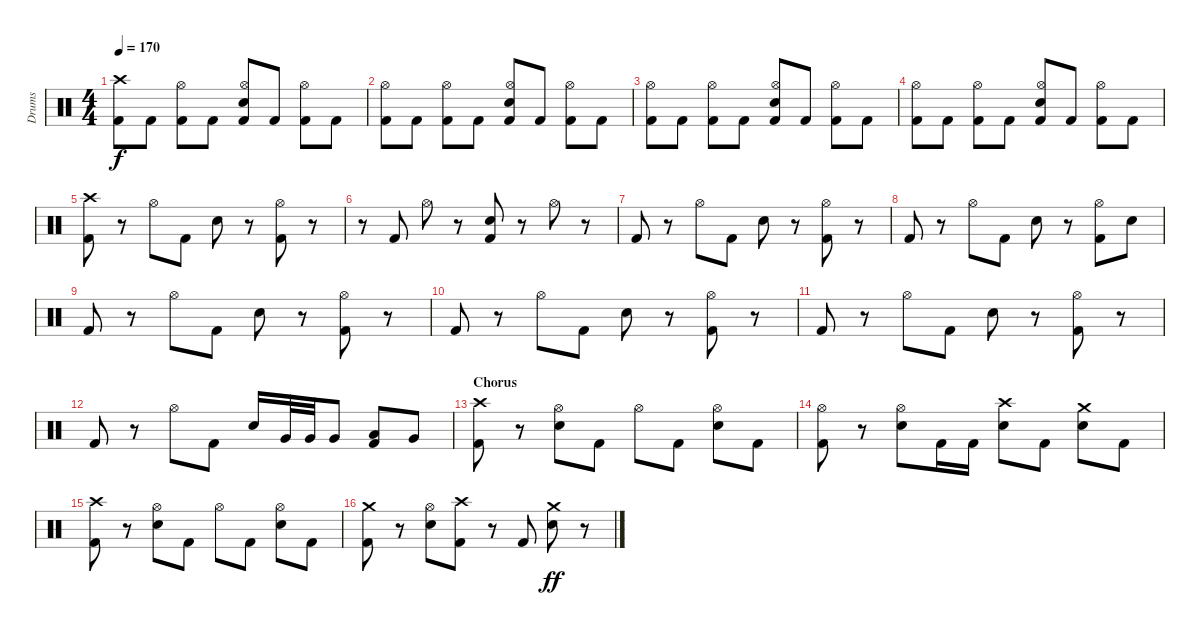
\track ("Drums" "Drums") {instrument percussion}
\staff {score}
\articulation defaults
\ts (4 4)
\tempo 170
\clef neutral
\ks c
("Kick (hit) 2" "Crash high (hit)").8{dy f} "Kick (hit) 2".8 ("Kick (hit) 2" "Hi-Hat (open)").8 "Kick (hit) 2".8 ("Kick (hit) 2" "Hi-Hat (open)" "Electric Snare (hit)").8 "Kick (hit) 2".8 ("Kick (hit) 2" "Hi-Hat (open)").8 "Kick (hit) 2".8 |
("Kick (hit) 2" "Hi-Hat (open)").8 "Kick (hit) 2".8 ("Kick (hit) 2" "Hi-Hat (open)").8 "Kick (hit) 2".8 ("Kick (hit) 2" "Hi-Hat (open)" "Electric Snare (hit)").8 "Kick (hit) 2".8 ("Kick (hit) 2" "Hi-Hat (open)").8 "Kick (hit) 2".8 |
("Kick (hit) 2" "Hi-Hat (open)").8 "Kick (hit) 2".8 ("Kick (hit) 2" "Hi-Hat (open)").8 "Kick (hit) 2".8 ("Kick (hit) 2" "Hi-Hat (open)" "Electric Snare (hit)").8 "Kick (hit) 2".8 ("Kick (hit) 2" "Hi-Hat (open)").8 "Kick (hit) 2".8 |
("Kick (hit) 2" "Hi-Hat (open)").8 "Kick (hit) 2".8 ("Kick (hit) 2" "Hi-Hat (open)").8 "Kick (hit) 2".8 ("Kick (hit) 2" "Hi-Hat (open)" "Electric Snare (hit)").8 "Kick (hit) 2".8 ("Kick (hit) 2" "Hi-Hat (open)").8 "Kick (hit) 2".8 |
("Kick (hit) 2" "Crash high (hit)").8 r.8 "Hi-Hat (open)".8 "Kick (hit) 2".8 "Electric Snare (hit)".8 r.8 ("Kick (hit) 2" "Hi-Hat (open)").8 r.8 |
r.8 "Kick (hit) 2".8 "Hi-Hat (open)".8 r.8 ("Kick (hit) 2" "Electric Snare (hit)").8 r.8 "Hi-Hat (open)".8 r.8 |
"Kick (hit) 2".8 r.8 "Hi-Hat (open)".8 "Kick (hit) 2".8 "Electric Snare (hit)".8 r.8 ("Kick (hit) 2" "Hi-Hat (open)").8 r.8 |
"Kick (hit) 2".8 r.8 "Hi-Hat (open)".8 "Kick (hit) 2".8 "Electric Snare (hit)".8 r.8 ("Kick (hit) 2" "Hi-Hat (open)").8 "Electric Snare (hit)".8 |
"Kick (hit) 2".8 r.8 "Hi-Hat (open)".8 "Kick (hit) 2".8 "Electric Snare (hit)".8 r.8 ("Kick (hit) 2" "Hi-Hat (open)").8 r.8 |
"Kick (hit) 2".8 r.8 "Hi-Hat (open)".8 "Kick (hit) 2".8 "Electric Snare (hit)".8 r.8 ("Kick (hit) 2" "Hi-Hat (open)").8 r.8 |
"Kick (hit) 2".8 r.8 "Hi-Hat (open)".8 "Kick (hit) 2".8 "Electric Snare (hit)".8 r.8 ("Kick (hit) 2" "Hi-Hat (open)").8 r.8 |
"Kick (hit) 2".8 r.8 "Hi-Hat (open)".8 "Kick (hit) 2".8 "Electric Snare (hit)".16 "Very Low Tom (hit)".32 "Very Low Tom (hit)".32 "Very Low Tom (hit)".8 ("Kick (hit) 2" "Low Tom (hit)").8 "Very Low Tom (hit)".8 |
\section ("" "Chorus")
("Kick (hit) 2" "Crash high (hit)").8 r.8 ("Hi-Hat (open)" "Electric Snare (hit)").8 "Kick (hit) 2".8 "Hi-Hat (open)".8 "Kick (hit) 2".8 ("Hi-Hat (open)" "Electric Snare (hit)").8 "Kick (hit) 2".8 |
("Kick (hit) 2" "Hi-Hat (open)").8 r.8 ("Hi-Hat (open)" "Electric Snare (hit)").8 "Kick (hit) 2".16 "Kick (hit) 2".16 ("Electric Snare (hit)" "Crash high (hit)").8 "Kick (hit) 2".8 ("Electric Snare (hit)" "Crash medium (hit)").8 "Kick (hit) 2".8 |
("Kick (hit) 2" "Crash high (hit)").8 r.8 ("Hi-Hat (open)" "Electric Snare (hit)").8 "Kick (hit) 2".8 "Hi-Hat (open)".8 "Kick (hit) 2".8 ("Hi-Hat (open)" "Electric Snare (hit)").8 "Kick (hit) 2".8 |
("Kick (hit) 2" "Crash medium (hit)").8 r.8 ("Hi-Hat (open)" "Electric Snare (hit)").8 ("Kick (hit) 2" "Crash high (hit)").8 r.8 "Kick (hit) 2".8 ("Electric Snare (hit)" "Crash medium (hit)").8{dy ff} r.8
